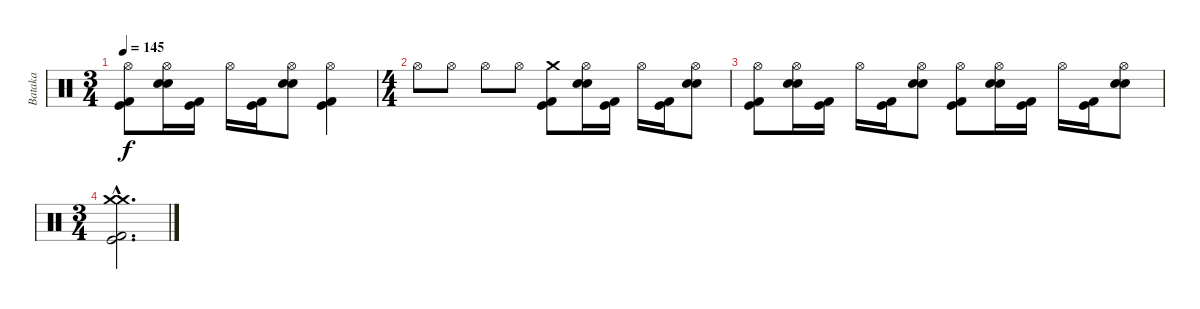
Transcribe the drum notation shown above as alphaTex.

\track ("Bataka" "Bataka") {instrument percussion}
\staff {score}
\articulation defaults
\ts (3 4)
\tempo 145
\clef neutral
\ks c
("Hi-Hat (open)" "Kick (hit) 2" "Kick (hit)").8{dy f} ("Hi-Hat (open)" "Snare (hit) 2" "Snare (hit) 2").16 ("Kick (hit) 2" "Kick (hit)").16 "Hi-Hat (open)".16 ("Kick (hit) 2" "Kick (hit)").16 ("Hi-Hat (open)" "Snare (hit) 2" "Snare (hit) 2").8 ("Hi-Hat (open)" "Kick (hit) 2" "Kick (hit)").4 |
\ts (4 4)
"Hi-Hat (open)".8 "Hi-Hat (open)".8 "Hi-Hat (open)".8 "Hi-Hat (open)".8 ("Crash medium (hit)" "Kick (hit) 2" "Kick (hit)").8 ("Hi-Hat (open)" "Snare (hit) 2" "Snare (hit) 2").16 ("Kick (hit) 2" "Kick (hit)").16 "Hi-Hat (open)".16 ("Kick (hit) 2" "Kick (hit)").16 ("Hi-Hat (open)" "Snare (hit) 2" "Snare (hit) 2").8 |
("Hi-Hat (open)" "Kick (hit) 2" "Kick (hit)").8 ("Hi-Hat (open)" "Snare (hit) 2" "Snare (hit) 2").16 ("Kick (hit) 2" "Kick (hit)").16 "Hi-Hat (open)".16 ("Kick (hit) 2" "Kick (hit)").16 ("Hi-Hat (open)" "Snare (hit) 2" "Snare (hit) 2").8 ("Hi-Hat (open)" "Kick (hit) 2" "Kick (hit)").8 ("Hi-Hat (open)" "Snare (hit) 2" "Snare (hit) 2").16 ("Kick (hit) 2" "Kick (hit)").16 "Hi-Hat (open)".16 ("Kick (hit) 2" "Kick (hit)").16 ("Hi-Hat (open)" "Snare (hit) 2" "Snare (hit) 2").8 |
\ts (3 4)
("Crash medium (hit)"{hac} "Crash medium (hit)"{hac} "Kick (hit) 2"{hac} "Kick (hit)"{hac}).2{d}
